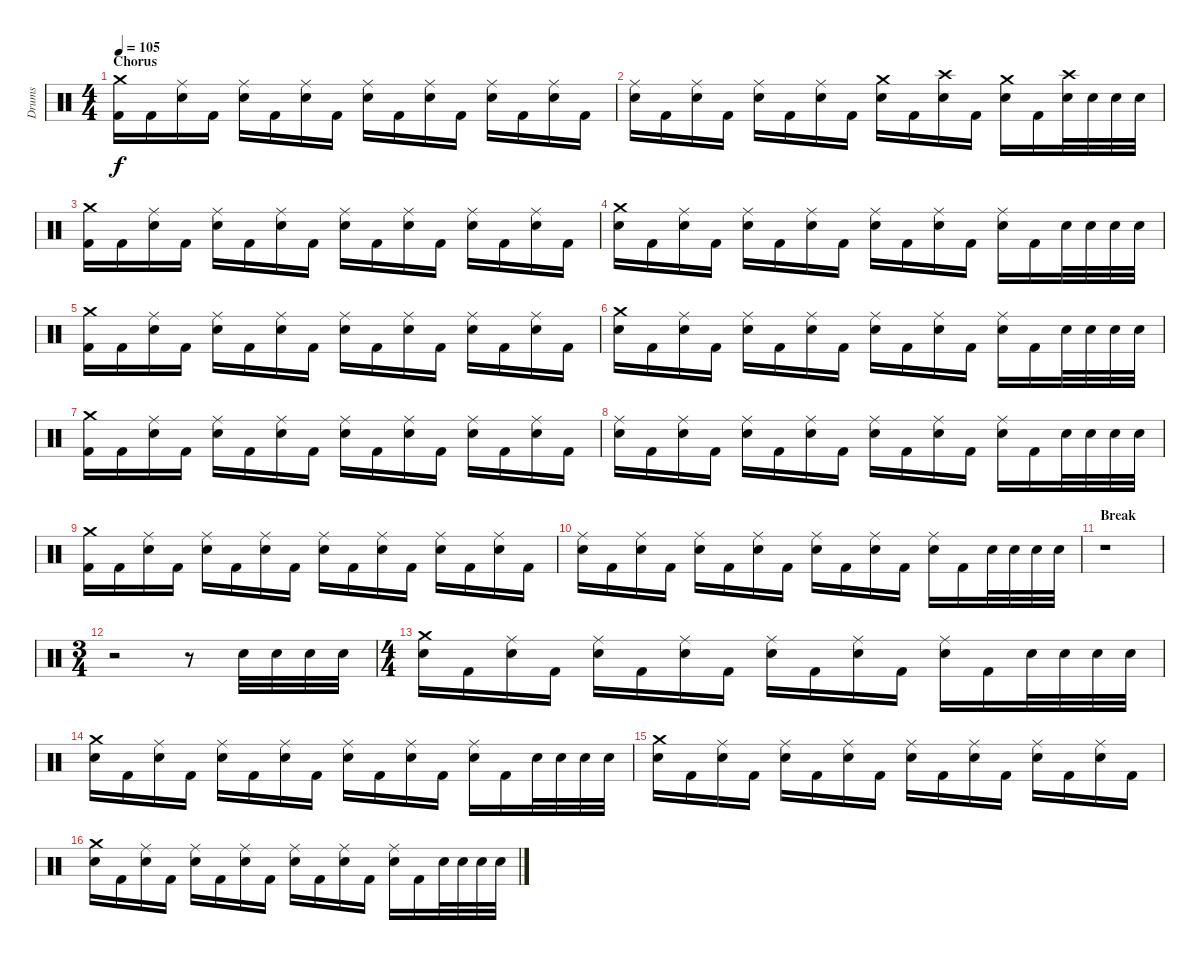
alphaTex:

\track ("Drums" "Drums") {instrument percussion}
\staff {score}
\articulation defaults
\ts (4 4)
\section ("" "Chorus")
\tempo 105
\clef neutral
\ks c
("Crash medium (hit)" "Kick (hit) 2").16{dy f} "Kick (hit) 2".16 ("Ride (middle)" "Electric Snare (hit)").16 "Kick (hit) 2".16 ("Ride (middle)" "Electric Snare (hit)").16 "Kick (hit) 2".16 ("Ride (middle)" "Electric Snare (hit)").16 "Kick (hit) 2".16 ("Ride (middle)" "Electric Snare (hit)").16 "Kick (hit) 2".16 ("Ride (middle)" "Electric Snare (hit)").16 "Kick (hit) 2".16 ("Ride (middle)" "Electric Snare (hit)").16 "Kick (hit) 2".16 ("Ride (middle)" "Electric Snare (hit)").16 "Kick (hit) 2".16 |
("Ride (middle)" "Electric Snare (hit)").16 "Kick (hit) 2".16 ("Ride (middle)" "Electric Snare (hit)").16 "Kick (hit) 2".16 ("Ride (middle)" "Electric Snare (hit)").16 "Kick (hit) 2".16 ("Ride (middle)" "Electric Snare (hit)").16 "Kick (hit) 2".16 ("Crash medium (hit)" "Electric Snare (hit)").16 "Kick (hit) 2".16 ("Crash high (hit)" "Electric Snare (hit)").16 "Kick (hit) 2".16 ("Crash medium (hit)" "Electric Snare (hit)").16 "Kick (hit) 2".16 ("Crash high (hit)" "Electric Snare (hit)").32 "Electric Snare (hit)".32 "Electric Snare (hit)".32 "Electric Snare (hit)".32 |
("Crash medium (hit)" "Kick (hit) 2").16 "Kick (hit) 2".16 ("Ride (middle)" "Electric Snare (hit)").16 "Kick (hit) 2".16 ("Ride (middle)" "Electric Snare (hit)").16 "Kick (hit) 2".16 ("Ride (middle)" "Electric Snare (hit)").16 "Kick (hit) 2".16 ("Ride (middle)" "Electric Snare (hit)").16 "Kick (hit) 2".16 ("Ride (middle)" "Electric Snare (hit)").16 "Kick (hit) 2".16 ("Ride (middle)" "Electric Snare (hit)").16 "Kick (hit) 2".16 ("Ride (middle)" "Electric Snare (hit)").16 "Kick (hit) 2".16 |
("Crash medium (hit)" "Electric Snare (hit)").16 "Kick (hit) 2".16 ("Ride (middle)" "Electric Snare (hit)").16 "Kick (hit) 2".16 ("Ride (middle)" "Electric Snare (hit)").16 "Kick (hit) 2".16 ("Ride (middle)" "Electric Snare (hit)").16 "Kick (hit) 2".16 ("Ride (middle)" "Electric Snare (hit)").16 "Kick (hit) 2".16 ("Ride (middle)" "Electric Snare (hit)").16 "Kick (hit) 2".16 ("Ride (middle)" "Electric Snare (hit)").16 "Kick (hit) 2".16 "Electric Snare (hit)".32 "Electric Snare (hit)".32 "Electric Snare (hit)".32 "Electric Snare (hit)".32 |
("Crash medium (hit)" "Kick (hit) 2").16 "Kick (hit) 2".16 ("Ride (middle)" "Electric Snare (hit)").16 "Kick (hit) 2".16 ("Ride (middle)" "Electric Snare (hit)").16 "Kick (hit) 2".16 ("Ride (middle)" "Electric Snare (hit)").16 "Kick (hit) 2".16 ("Ride (middle)" "Electric Snare (hit)").16 "Kick (hit) 2".16 ("Ride (middle)" "Electric Snare (hit)").16 "Kick (hit) 2".16 ("Ride (middle)" "Electric Snare (hit)").16 "Kick (hit) 2".16 ("Ride (middle)" "Electric Snare (hit)").16 "Kick (hit) 2".16 |
("Crash medium (hit)" "Electric Snare (hit)").16 "Kick (hit) 2".16 ("Ride (middle)" "Electric Snare (hit)").16 "Kick (hit) 2".16 ("Ride (middle)" "Electric Snare (hit)").16 "Kick (hit) 2".16 ("Ride (middle)" "Electric Snare (hit)").16 "Kick (hit) 2".16 ("Ride (middle)" "Electric Snare (hit)").16 "Kick (hit) 2".16 ("Ride (middle)" "Electric Snare (hit)").16 "Kick (hit) 2".16 ("Ride (middle)" "Electric Snare (hit)").16 "Kick (hit) 2".16 "Electric Snare (hit)".32 "Electric Snare (hit)".32 "Electric Snare (hit)".32 "Electric Snare (hit)".32 |
("Crash medium (hit)" "Kick (hit) 2").16 "Kick (hit) 2".16 ("Ride (middle)" "Electric Snare (hit)").16 "Kick (hit) 2".16 ("Ride (middle)" "Electric Snare (hit)").16 "Kick (hit) 2".16 ("Ride (middle)" "Electric Snare (hit)").16 "Kick (hit) 2".16 ("Ride (middle)" "Electric Snare (hit)").16 "Kick (hit) 2".16 ("Ride (middle)" "Electric Snare (hit)").16 "Kick (hit) 2".16 ("Ride (middle)" "Electric Snare (hit)").16 "Kick (hit) 2".16 ("Ride (middle)" "Electric Snare (hit)").16 "Kick (hit) 2".16 |
("Ride (middle)" "Electric Snare (hit)").16 "Kick (hit) 2".16 ("Ride (middle)" "Electric Snare (hit)").16 "Kick (hit) 2".16 ("Ride (middle)" "Electric Snare (hit)").16 "Kick (hit) 2".16 ("Ride (middle)" "Electric Snare (hit)").16 "Kick (hit) 2".16 ("Ride (middle)" "Electric Snare (hit)").16 "Kick (hit) 2".16 ("Ride (middle)" "Electric Snare (hit)").16 "Kick (hit) 2".16 ("Ride (middle)" "Electric Snare (hit)").16 "Kick (hit) 2".16 "Electric Snare (hit)".32 "Electric Snare (hit)".32 "Electric Snare (hit)".32 "Electric Snare (hit)".32 |
("Crash medium (hit)" "Kick (hit) 2").16 "Kick (hit) 2".16 ("Ride (middle)" "Electric Snare (hit)").16 "Kick (hit) 2".16 ("Ride (middle)" "Electric Snare (hit)").16 "Kick (hit) 2".16 ("Ride (middle)" "Electric Snare (hit)").16 "Kick (hit) 2".16 ("Ride (middle)" "Electric Snare (hit)").16 "Kick (hit) 2".16 ("Ride (middle)" "Electric Snare (hit)").16 "Kick (hit) 2".16 ("Ride (middle)" "Electric Snare (hit)").16 "Kick (hit) 2".16 ("Ride (middle)" "Electric Snare (hit)").16 "Kick (hit) 2".16 |
("Ride (middle)" "Electric Snare (hit)").16 "Kick (hit) 2".16 ("Ride (middle)" "Electric Snare (hit)").16 "Kick (hit) 2".16 ("Ride (middle)" "Electric Snare (hit)").16 "Kick (hit) 2".16 ("Ride (middle)" "Electric Snare (hit)").16 "Kick (hit) 2".16 ("Ride (middle)" "Electric Snare (hit)").16 "Kick (hit) 2".16 ("Ride (middle)" "Electric Snare (hit)").16 "Kick (hit) 2".16 ("Ride (middle)" "Electric Snare (hit)").16 "Kick (hit) 2".16 "Electric Snare (hit)".32 "Electric Snare (hit)".32 "Electric Snare (hit)".32 "Electric Snare (hit)".32 |
\section ("" "Break")
r.1 |
\ts (3 4)
r.2 r.8 "Electric Snare (hit)".32 "Electric Snare (hit)".32 "Electric Snare (hit)".32 "Electric Snare (hit)".32 |
\ts (4 4)
("Crash medium (hit)" "Electric Snare (hit)").16 "Kick (hit) 2".16 ("Ride (middle)" "Electric Snare (hit)").16 "Kick (hit) 2".16 ("Ride (middle)" "Electric Snare (hit)").16 "Kick (hit) 2".16 ("Ride (middle)" "Electric Snare (hit)").16 "Kick (hit) 2".16 ("Ride (middle)" "Electric Snare (hit)").16 "Kick (hit) 2".16 ("Ride (middle)" "Electric Snare (hit)").16 "Kick (hit) 2".16 ("Ride (middle)" "Electric Snare (hit)").16 "Kick (hit) 2".16 "Electric Snare (hit)".32 "Electric Snare (hit)".32 "Electric Snare (hit)".32 "Electric Snare (hit)".32 |
("Crash medium (hit)" "Electric Snare (hit)").16 "Kick (hit) 2".16 ("Ride (middle)" "Electric Snare (hit)").16 "Kick (hit) 2".16 ("Ride (middle)" "Electric Snare (hit)").16 "Kick (hit) 2".16 ("Ride (middle)" "Electric Snare (hit)").16 "Kick (hit) 2".16 ("Ride (middle)" "Electric Snare (hit)").16 "Kick (hit) 2".16 ("Ride (middle)" "Electric Snare (hit)").16 "Kick (hit) 2".16 ("Ride (middle)" "Electric Snare (hit)").16 "Kick (hit) 2".16 "Electric Snare (hit)".32 "Electric Snare (hit)".32 "Electric Snare (hit)".32 "Electric Snare (hit)".32 |
("Crash medium (hit)" "Electric Snare (hit)").16 "Kick (hit) 2".16 ("Ride (middle)" "Electric Snare (hit)").16 "Kick (hit) 2".16 ("Ride (middle)" "Electric Snare (hit)").16 "Kick (hit) 2".16 ("Ride (middle)" "Electric Snare (hit)").16 "Kick (hit) 2".16 ("Ride (middle)" "Electric Snare (hit)").16 "Kick (hit) 2".16 ("Ride (middle)" "Electric Snare (hit)").16 "Kick (hit) 2".16 ("Ride (middle)" "Electric Snare (hit)").16 "Kick (hit) 2".16 ("Ride (middle)" "Electric Snare (hit)").16 "Kick (hit) 2".16 |
("Crash medium (hit)" "Electric Snare (hit)").16 "Kick (hit) 2".16 ("Ride (middle)" "Electric Snare (hit)").16 "Kick (hit) 2".16 ("Ride (middle)" "Electric Snare (hit)").16 "Kick (hit) 2".16 ("Ride (middle)" "Electric Snare (hit)").16 "Kick (hit) 2".16 ("Ride (middle)" "Electric Snare (hit)").16 "Kick (hit) 2".16 ("Ride (middle)" "Electric Snare (hit)").16 "Kick (hit) 2".16 ("Ride (middle)" "Electric Snare (hit)").16 "Kick (hit) 2".16 "Electric Snare (hit)".32 "Electric Snare (hit)".32 "Electric Snare (hit)".32 "Electric Snare (hit)".32
